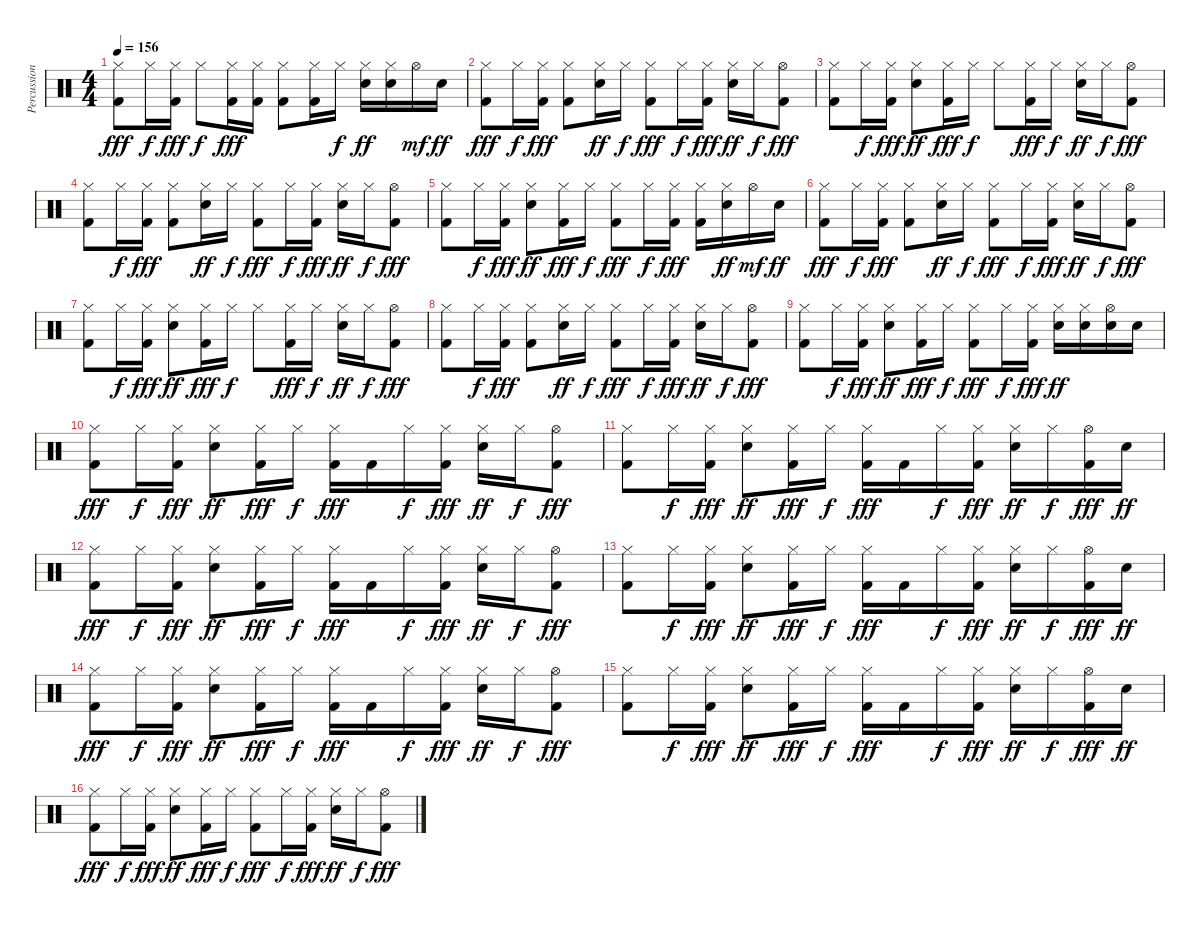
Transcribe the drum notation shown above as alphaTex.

\track ("Percussion" "Percussion") {instrument percussion}
\staff {score}
\articulation defaults
\ts (4 4)
\tempo 156
\clef neutral
\ks c
("Hi-Hat (closed)" "Kick (hit) 2").8{dy fff} "Hi-Hat (closed)".16{dy f} ("Hi-Hat (closed)" "Kick (hit) 2").16{dy fff} "Hi-Hat (closed)".8{dy f} ("Hi-Hat (closed)" "Kick (hit) 2").16{dy fff} ("Hi-Hat (closed)" "Kick (hit) 2").16 ("Hi-Hat (closed)" "Kick (hit) 2").8 ("Hi-Hat (closed)" "Kick (hit) 2").16 "Hi-Hat (closed)".16{dy f} ("Hi-Hat (closed)" "Electric Snare (hit)").16{dy ff} ("Hi-Hat (closed)" "Electric Snare (hit)").16 "Hi-Hat (open)".16{dy mf} "Electric Snare (hit)".16{dy ff} |
("Hi-Hat (closed)" "Kick (hit) 2").8{dy fff} "Hi-Hat (closed)".16{dy f} ("Hi-Hat (closed)" "Kick (hit) 2").16{dy fff} ("Hi-Hat (closed)" "Kick (hit) 2").8 ("Hi-Hat (closed)" "Electric Snare (hit)").16{dy ff} "Hi-Hat (closed)".16{dy f} ("Hi-Hat (closed)" "Kick (hit) 2").8{dy fff} "Hi-Hat (closed)".16{dy f} ("Hi-Hat (closed)" "Kick (hit) 2").16{dy fff} ("Hi-Hat (closed)" "Electric Snare (hit)").16{dy ff} "Hi-Hat (closed)".16{dy f} ("Hi-Hat (open)" "Kick (hit) 2").8{dy fff} |
("Hi-Hat (closed)" "Kick (hit) 2").8 "Hi-Hat (closed)".16{dy f} ("Hi-Hat (closed)" "Kick (hit) 2").16{dy fff} ("Hi-Hat (closed)" "Electric Snare (hit)").8{dy ff} ("Hi-Hat (closed)" "Kick (hit) 2").16{dy fff} "Hi-Hat (closed)".16{dy f} "Hi-Hat (closed)".8 ("Hi-Hat (closed)" "Kick (hit) 2").16{dy fff} "Hi-Hat (closed)".16{dy f} ("Hi-Hat (closed)" "Electric Snare (hit)").16{dy ff} "Hi-Hat (closed)".16{dy f} ("Hi-Hat (open)" "Kick (hit) 2").8{dy fff} |
("Hi-Hat (closed)" "Kick (hit) 2").8 "Hi-Hat (closed)".16{dy f} ("Hi-Hat (closed)" "Kick (hit) 2").16{dy fff} ("Hi-Hat (closed)" "Kick (hit) 2").8 ("Hi-Hat (closed)" "Electric Snare (hit)").16{dy ff} "Hi-Hat (closed)".16{dy f} ("Hi-Hat (closed)" "Kick (hit) 2").8{dy fff} "Hi-Hat (closed)".16{dy f} ("Hi-Hat (closed)" "Kick (hit) 2").16{dy fff} ("Hi-Hat (closed)" "Electric Snare (hit)").16{dy ff} "Hi-Hat (closed)".16{dy f} ("Hi-Hat (open)" "Kick (hit) 2").8{dy fff} |
("Hi-Hat (closed)" "Kick (hit) 2").8 "Hi-Hat (closed)".16{dy f} ("Hi-Hat (closed)" "Kick (hit) 2").16{dy fff} ("Hi-Hat (closed)" "Electric Snare (hit)").8{dy ff} ("Hi-Hat (closed)" "Kick (hit) 2").16{dy fff} "Hi-Hat (closed)".16{dy f} ("Hi-Hat (closed)" "Kick (hit) 2").8{dy fff} "Hi-Hat (closed)".16{dy f} ("Hi-Hat (closed)" "Kick (hit) 2").16{dy fff} ("Hi-Hat (closed)" "Kick (hit) 2").16 ("Hi-Hat (closed)" "Electric Snare (hit)").16{dy ff} "Hi-Hat (open)".16{dy mf} "Electric Snare (hit)".16{dy ff} |
("Hi-Hat (closed)" "Kick (hit) 2").8{dy fff} "Hi-Hat (closed)".16{dy f} ("Hi-Hat (closed)" "Kick (hit) 2").16{dy fff} ("Hi-Hat (closed)" "Kick (hit) 2").8 ("Hi-Hat (closed)" "Electric Snare (hit)").16{dy ff} "Hi-Hat (closed)".16{dy f} ("Hi-Hat (closed)" "Kick (hit) 2").8{dy fff} "Hi-Hat (closed)".16{dy f} ("Hi-Hat (closed)" "Kick (hit) 2").16{dy fff} ("Hi-Hat (closed)" "Electric Snare (hit)").16{dy ff} "Hi-Hat (closed)".16{dy f} ("Hi-Hat (open)" "Kick (hit) 2").8{dy fff} |
("Hi-Hat (closed)" "Kick (hit) 2").8 "Hi-Hat (closed)".16{dy f} ("Hi-Hat (closed)" "Kick (hit) 2").16{dy fff} ("Hi-Hat (closed)" "Electric Snare (hit)").8{dy ff} ("Hi-Hat (closed)" "Kick (hit) 2").16{dy fff} "Hi-Hat (closed)".16{dy f} "Hi-Hat (closed)".8 ("Hi-Hat (closed)" "Kick (hit) 2").16{dy fff} "Hi-Hat (closed)".16{dy f} ("Hi-Hat (closed)" "Electric Snare (hit)").16{dy ff} "Hi-Hat (closed)".16{dy f} ("Hi-Hat (open)" "Kick (hit) 2").8{dy fff} |
("Hi-Hat (closed)" "Kick (hit) 2").8 "Hi-Hat (closed)".16{dy f} ("Hi-Hat (closed)" "Kick (hit) 2").16{dy fff} ("Hi-Hat (closed)" "Kick (hit) 2").8 ("Hi-Hat (closed)" "Electric Snare (hit)").16{dy ff} "Hi-Hat (closed)".16{dy f} ("Hi-Hat (closed)" "Kick (hit) 2").8{dy fff} "Hi-Hat (closed)".16{dy f} ("Hi-Hat (closed)" "Kick (hit) 2").16{dy fff} ("Hi-Hat (closed)" "Electric Snare (hit)").16{dy ff} "Hi-Hat (closed)".16{dy f} ("Hi-Hat (open)" "Kick (hit) 2").8{dy fff} |
("Hi-Hat (closed)" "Kick (hit) 2").8 "Hi-Hat (closed)".16{dy f} ("Hi-Hat (closed)" "Kick (hit) 2").16{dy fff} ("Hi-Hat (closed)" "Electric Snare (hit)").8{dy ff} ("Hi-Hat (closed)" "Kick (hit) 2").16{dy fff} "Hi-Hat (closed)".16{dy f} ("Hi-Hat (closed)" "Kick (hit) 2").8{dy fff} "Hi-Hat (closed)".16{dy f} ("Hi-Hat (closed)" "Kick (hit) 2").16{dy fff} ("Hi-Hat (closed)" "Electric Snare (hit)").16{dy ff} ("Hi-Hat (closed)" "Electric Snare (hit)").16 ("Hi-Hat (open)" "Electric Snare (hit)").16 "Electric Snare (hit)".16 |
("Hi-Hat (closed)" "Kick (hit) 2").8{dy fff} "Hi-Hat (closed)".16{dy f} ("Hi-Hat (closed)" "Kick (hit) 2").16{dy fff} ("Hi-Hat (closed)" "Electric Snare (hit)").8{dy ff} ("Hi-Hat (closed)" "Kick (hit) 2").16{dy fff} "Hi-Hat (closed)".16{dy f} ("Hi-Hat (closed)" "Kick (hit) 2").16{dy fff} "Kick (hit) 2".16 "Hi-Hat (closed)".16{dy f} ("Hi-Hat (closed)" "Kick (hit) 2").16{dy fff} ("Hi-Hat (closed)" "Electric Snare (hit)").16{dy ff} "Hi-Hat (closed)".16{dy f} ("Hi-Hat (open)" "Kick (hit) 2").8{dy fff} |
("Hi-Hat (closed)" "Kick (hit) 2").8 "Hi-Hat (closed)".16{dy f} ("Hi-Hat (closed)" "Kick (hit) 2").16{dy fff} ("Hi-Hat (closed)" "Electric Snare (hit)").8{dy ff} ("Hi-Hat (closed)" "Kick (hit) 2").16{dy fff} "Hi-Hat (closed)".16{dy f} ("Hi-Hat (closed)" "Kick (hit) 2").16{dy fff} "Kick (hit) 2".16 "Hi-Hat (closed)".16{dy f} ("Hi-Hat (closed)" "Kick (hit) 2").16{dy fff} ("Hi-Hat (closed)" "Electric Snare (hit)").16{dy ff} "Hi-Hat (closed)".16{dy f} ("Hi-Hat (open)" "Kick (hit) 2").16{dy fff} "Electric Snare (hit)".16{dy ff} |
("Hi-Hat (closed)" "Kick (hit) 2").8{dy fff} "Hi-Hat (closed)".16{dy f} ("Hi-Hat (closed)" "Kick (hit) 2").16{dy fff} ("Hi-Hat (closed)" "Electric Snare (hit)").8{dy ff} ("Hi-Hat (closed)" "Kick (hit) 2").16{dy fff} "Hi-Hat (closed)".16{dy f} ("Hi-Hat (closed)" "Kick (hit) 2").16{dy fff} "Kick (hit) 2".16 "Hi-Hat (closed)".16{dy f} ("Hi-Hat (closed)" "Kick (hit) 2").16{dy fff} ("Hi-Hat (closed)" "Electric Snare (hit)").16{dy ff} "Hi-Hat (closed)".16{dy f} ("Hi-Hat (open)" "Kick (hit) 2").8{dy fff} |
("Hi-Hat (closed)" "Kick (hit) 2").8 "Hi-Hat (closed)".16{dy f} ("Hi-Hat (closed)" "Kick (hit) 2").16{dy fff} ("Hi-Hat (closed)" "Electric Snare (hit)").8{dy ff} ("Hi-Hat (closed)" "Kick (hit) 2").16{dy fff} "Hi-Hat (closed)".16{dy f} ("Hi-Hat (closed)" "Kick (hit) 2").16{dy fff} "Kick (hit) 2".16 "Hi-Hat (closed)".16{dy f} ("Hi-Hat (closed)" "Kick (hit) 2").16{dy fff} ("Hi-Hat (closed)" "Electric Snare (hit)").16{dy ff} "Hi-Hat (closed)".16{dy f} ("Hi-Hat (open)" "Kick (hit) 2").16{dy fff} "Electric Snare (hit)".16{dy ff} |
("Hi-Hat (closed)" "Kick (hit) 2").8{dy fff} "Hi-Hat (closed)".16{dy f} ("Hi-Hat (closed)" "Kick (hit) 2").16{dy fff} ("Hi-Hat (closed)" "Electric Snare (hit)").8{dy ff} ("Hi-Hat (closed)" "Kick (hit) 2").16{dy fff} "Hi-Hat (closed)".16{dy f} ("Hi-Hat (closed)" "Kick (hit) 2").16{dy fff} "Kick (hit) 2".16 "Hi-Hat (closed)".16{dy f} ("Hi-Hat (closed)" "Kick (hit) 2").16{dy fff} ("Hi-Hat (closed)" "Electric Snare (hit)").16{dy ff} "Hi-Hat (closed)".16{dy f} ("Hi-Hat (open)" "Kick (hit) 2").8{dy fff} |
("Hi-Hat (closed)" "Kick (hit) 2").8 "Hi-Hat (closed)".16{dy f} ("Hi-Hat (closed)" "Kick (hit) 2").16{dy fff} ("Hi-Hat (closed)" "Electric Snare (hit)").8{dy ff} ("Hi-Hat (closed)" "Kick (hit) 2").16{dy fff} "Hi-Hat (closed)".16{dy f} ("Hi-Hat (closed)" "Kick (hit) 2").16{dy fff} "Kick (hit) 2".16 "Hi-Hat (closed)".16{dy f} ("Hi-Hat (closed)" "Kick (hit) 2").16{dy fff} ("Hi-Hat (closed)" "Electric Snare (hit)").16{dy ff} "Hi-Hat (closed)".16{dy f} ("Hi-Hat (open)" "Kick (hit) 2").16{dy fff} "Electric Snare (hit)".16{dy ff} |
("Hi-Hat (closed)" "Kick (hit) 2").8{dy fff} "Hi-Hat (closed)".16{dy f} ("Hi-Hat (closed)" "Kick (hit) 2").16{dy fff} ("Hi-Hat (closed)" "Electric Snare (hit)").8{dy ff} ("Hi-Hat (closed)" "Kick (hit) 2").16{dy fff} "Hi-Hat (closed)".16{dy f} ("Hi-Hat (closed)" "Kick (hit) 2").8{dy fff} "Hi-Hat (closed)".16{dy f} ("Hi-Hat (closed)" "Kick (hit) 2").16{dy fff} ("Hi-Hat (closed)" "Electric Snare (hit)").16{dy ff} "Hi-Hat (closed)".16{dy f} ("Hi-Hat (open)" "Kick (hit) 2").8{dy fff}
